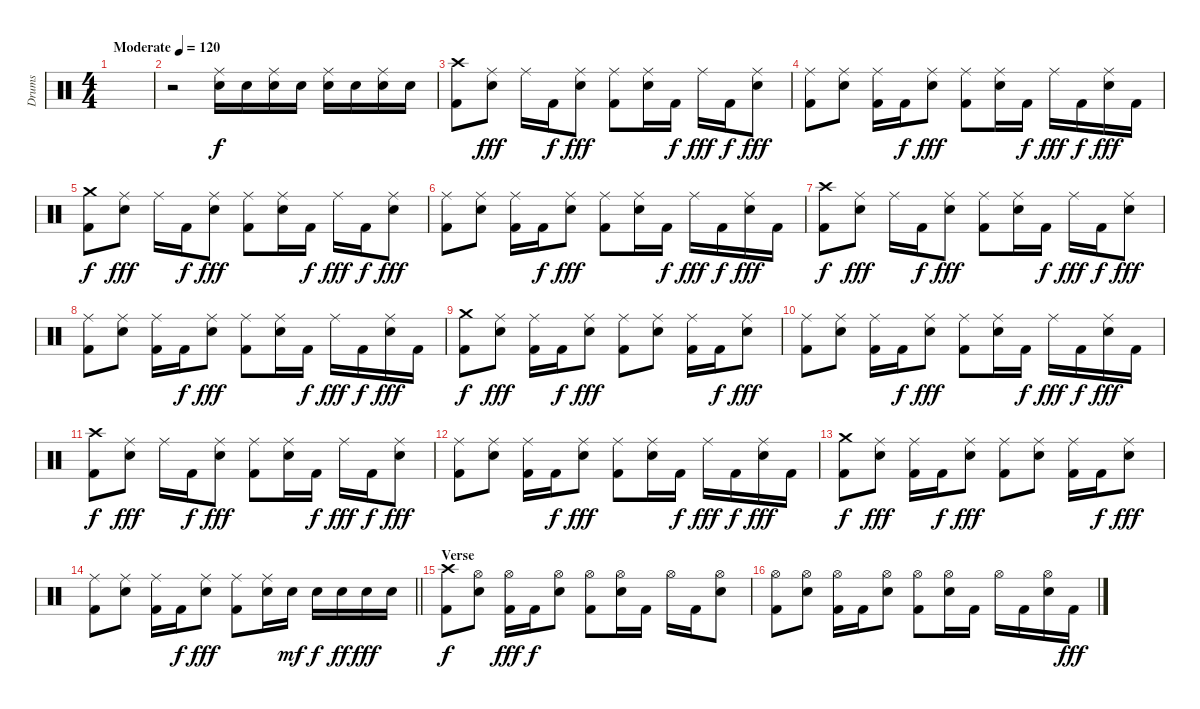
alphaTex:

\track ("Drums" "Drums") {instrument percussion}
\staff {score}
\articulation defaults
\ts (4 4)
\tempo (120 "Moderate")
\clef neutral
\ks c
|
r.2 ("Ride (middle)" "Snare (hit) 2").16 "Snare (hit) 2".16 ("Ride (middle)" "Snare (hit) 2").16 "Snare (hit) 2".16 ("Ride (middle)" "Snare (hit) 2").16 "Snare (hit) 2".16 ("Ride (middle)" "Snare (hit) 2").16 "Snare (hit) 2".16 |
("Crash high (hit)" "Kick (hit) 2").8 ("Ride (middle)" "Snare (hit) 2").8{dy fff} "Ride (middle)".16 "Kick (hit) 2".16{dy f} ("Ride (middle)" "Snare (hit) 2").8{dy fff} ("Ride (middle)" "Kick (hit) 2").8 ("Ride (middle)" "Snare (hit) 2").16 "Kick (hit) 2".16{dy f} "Ride (middle)".16{dy fff} "Kick (hit) 2".16{dy f} ("Ride (middle)" "Snare (hit) 2").8{dy fff} |
("Ride (middle)" "Kick (hit) 2").8 ("Ride (middle)" "Snare (hit) 2").8 ("Ride (middle)" "Kick (hit) 2").16 "Kick (hit) 2".16{dy f} ("Ride (middle)" "Snare (hit) 2").8{dy fff} ("Ride (middle)" "Kick (hit) 2").8 ("Ride (middle)" "Snare (hit) 2").16 "Kick (hit) 2".16{dy f} "Ride (middle)".16{dy fff} "Kick (hit) 2".16{dy f} ("Ride (middle)" "Snare (hit) 2").16{dy fff} "Kick (hit) 2".16 |
("Crash medium (hit)" "Kick (hit) 2").8{dy f} ("Ride (middle)" "Snare (hit) 2").8{dy fff} "Ride (middle)".16 "Kick (hit) 2".16{dy f} ("Ride (middle)" "Snare (hit) 2").8{dy fff} ("Ride (middle)" "Kick (hit) 2").8 ("Ride (middle)" "Snare (hit) 2").16 "Kick (hit) 2".16{dy f} "Ride (middle)".16{dy fff} "Kick (hit) 2".16{dy f} ("Ride (middle)" "Snare (hit) 2").8{dy fff} |
("Ride (middle)" "Kick (hit) 2").8 ("Ride (middle)" "Snare (hit) 2").8 ("Ride (middle)" "Kick (hit) 2").16 "Kick (hit) 2".16{dy f} ("Ride (middle)" "Snare (hit) 2").8{dy fff} ("Ride (middle)" "Kick (hit) 2").8 ("Ride (middle)" "Snare (hit) 2").16 "Kick (hit) 2".16{dy f} "Ride (middle)".16{dy fff} "Kick (hit) 2".16{dy f} ("Ride (middle)" "Snare (hit) 2").16{dy fff} "Kick (hit) 2".16 |
("Crash high (hit)" "Kick (hit) 2").8{dy f} ("Ride (middle)" "Snare (hit) 2").8{dy fff} "Ride (middle)".16 "Kick (hit) 2".16{dy f} ("Ride (middle)" "Snare (hit) 2").8{dy fff} ("Ride (middle)" "Kick (hit) 2").8 ("Ride (middle)" "Snare (hit) 2").16 "Kick (hit) 2".16{dy f} "Ride (middle)".16{dy fff} "Kick (hit) 2".16{dy f} ("Ride (middle)" "Snare (hit) 2").8{dy fff} |
("Ride (middle)" "Kick (hit) 2").8 ("Ride (middle)" "Snare (hit) 2").8 ("Ride (middle)" "Kick (hit) 2").16 "Kick (hit) 2".16{dy f} ("Ride (middle)" "Snare (hit) 2").8{dy fff} ("Ride (middle)" "Kick (hit) 2").8 ("Ride (middle)" "Snare (hit) 2").16 "Kick (hit) 2".16{dy f} "Ride (middle)".16{dy fff} "Kick (hit) 2".16{dy f} ("Ride (middle)" "Snare (hit) 2").16{dy fff} "Kick (hit) 2".16 |
("Crash medium (hit)" "Kick (hit) 2").8{dy f} ("Ride (middle)" "Snare (hit) 2").8{dy fff} ("Ride (middle)" "Kick (hit) 2").16 "Kick (hit) 2".16{dy f} ("Ride (middle)" "Snare (hit) 2").8{dy fff} ("Ride (middle)" "Kick (hit) 2").8 ("Ride (middle)" "Snare (hit) 2").8 ("Ride (middle)" "Kick (hit) 2").16 "Kick (hit) 2".16{dy f} ("Ride (middle)" "Snare (hit) 2").8{dy fff} |
("Ride (middle)" "Kick (hit) 2").8 ("Ride (middle)" "Snare (hit) 2").8 ("Ride (middle)" "Kick (hit) 2").16 "Kick (hit) 2".16{dy f} ("Ride (middle)" "Snare (hit) 2").8{dy fff} ("Ride (middle)" "Kick (hit) 2").8 ("Ride (middle)" "Snare (hit) 2").16 "Kick (hit) 2".16{dy f} "Ride (middle)".16{dy fff} "Kick (hit) 2".16{dy f} ("Ride (middle)" "Snare (hit) 2").16{dy fff} "Kick (hit) 2".16 |
("Crash high (hit)" "Kick (hit) 2").8{dy f} ("Ride (middle)" "Snare (hit) 2").8{dy fff} "Ride (middle)".16 "Kick (hit) 2".16{dy f} ("Ride (middle)" "Snare (hit) 2").8{dy fff} ("Ride (middle)" "Kick (hit) 2").8 ("Ride (middle)" "Snare (hit) 2").16 "Kick (hit) 2".16{dy f} "Ride (middle)".16{dy fff} "Kick (hit) 2".16{dy f} ("Ride (middle)" "Snare (hit) 2").8{dy fff} |
("Ride (middle)" "Kick (hit) 2").8 ("Ride (middle)" "Snare (hit) 2").8 ("Ride (middle)" "Kick (hit) 2").16 "Kick (hit) 2".16{dy f} ("Ride (middle)" "Snare (hit) 2").8{dy fff} ("Ride (middle)" "Kick (hit) 2").8 ("Ride (middle)" "Snare (hit) 2").16 "Kick (hit) 2".16{dy f} "Ride (middle)".16{dy fff} "Kick (hit) 2".16{dy f} ("Ride (middle)" "Snare (hit) 2").16{dy fff} "Kick (hit) 2".16 |
("Crash medium (hit)" "Kick (hit) 2").8{dy f} ("Ride (middle)" "Snare (hit) 2").8{dy fff} ("Ride (middle)" "Kick (hit) 2").16 "Kick (hit) 2".16{dy f} ("Ride (middle)" "Snare (hit) 2").8{dy fff} ("Ride (middle)" "Kick (hit) 2").8 ("Ride (middle)" "Snare (hit) 2").8 ("Ride (middle)" "Kick (hit) 2").16 "Kick (hit) 2".16{dy f} ("Ride (middle)" "Snare (hit) 2").8{dy fff} |
\barLineRight lightlight
("Ride (middle)" "Kick (hit) 2").8 ("Ride (middle)" "Snare (hit) 2").8 ("Ride (middle)" "Kick (hit) 2").16 "Kick (hit) 2".16{dy f} ("Ride (middle)" "Snare (hit) 2").8{dy fff} ("Ride (middle)" "Kick (hit) 2").8 ("Ride (middle)" "Snare (hit) 2").16 "Snare (hit) 2".16{dy mf} "Snare (hit) 2".16{dy f} "Snare (hit) 2".16{dy ff} "Snare (hit) 2".16{dy fff} "Snare (hit) 2".16 |
\section ("" "Verse")
("Crash high (hit)" "Kick (hit) 2").8{dy f} ("Hi-Hat (open)" "Snare (hit) 2").8 ("Hi-Hat (open)" "Kick (hit) 2").16{dy fff} "Kick (hit) 2".16{dy f} ("Hi-Hat (open)" "Snare (hit) 2").8 ("Hi-Hat (open)" "Kick (hit) 2").8 ("Hi-Hat (open)" "Snare (hit) 2").16 "Kick (hit) 2".16 "Hi-Hat (open)".16 "Kick (hit) 2".16 ("Hi-Hat (open)" "Snare (hit) 2").8 |
("Hi-Hat (open)" "Kick (hit) 2").8 ("Hi-Hat (open)" "Snare (hit) 2").8 ("Hi-Hat (open)" "Kick (hit) 2").16 "Kick (hit) 2".16 ("Hi-Hat (open)" "Snare (hit) 2").8 ("Hi-Hat (open)" "Kick (hit) 2").8 ("Hi-Hat (open)" "Snare (hit) 2").16 "Kick (hit) 2".16 "Hi-Hat (open)".16 "Kick (hit) 2".16 ("Hi-Hat (open)" "Snare (hit) 2").16 "Kick (hit) 2".16{dy fff}
